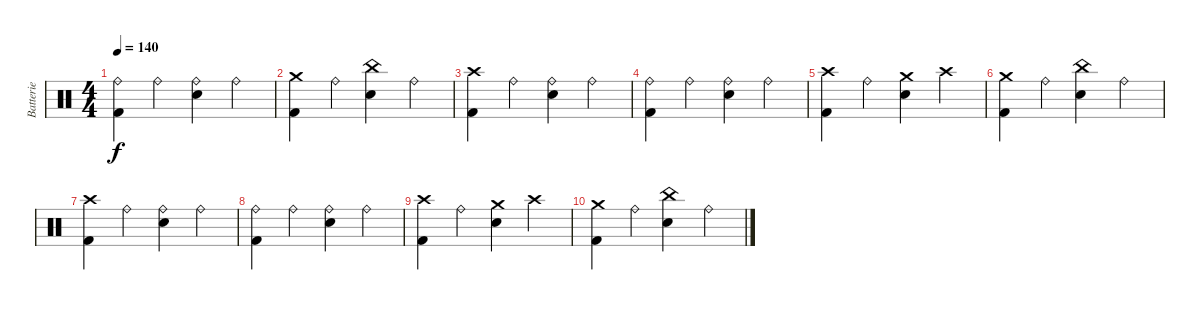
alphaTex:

\track ("Batterie" "Batterie") {instrument percussion}
\staff {score}
\articulation defaults
\ts (4 4)
\tempo 140
\clef neutral
\ks c
("Ride (bell)" "Kick (hit) 2").4{dy f} "Ride (bell)".4 ("Ride (bell)" "Electric Snare (hit)").4 "Ride (bell)".4 |
("Crash medium (hit)" "Kick (hit) 2").4 "Ride (bell)".4 ("China (hit)" "Electric Snare (hit)").4 "Ride (bell)".4 |
("Crash high (hit)" "Kick (hit) 2").4 "Ride (bell)".4 ("Ride (bell)" "Electric Snare (hit)").4 "Ride (bell)".4 |
("Ride (bell)" "Kick (hit) 2").4 "Ride (bell)".4 ("Ride (bell)" "Electric Snare (hit)").4 "Ride (bell)".4 |
("Crash high (hit)" "Kick (hit) 2").4 "Ride (bell)".4 ("Crash medium (hit)" "Electric Snare (hit)").4 "Crash high (hit)".4 |
("Crash medium (hit)" "Kick (hit) 2").4 "Ride (bell)".4 ("China (hit)" "Electric Snare (hit)").4 "Ride (bell)".4 |
("Crash high (hit)" "Kick (hit) 2").4 "Ride (bell)".4 ("Ride (bell)" "Electric Snare (hit)").4 "Ride (bell)".4 |
("Ride (bell)" "Kick (hit) 2").4 "Ride (bell)".4 ("Ride (bell)" "Electric Snare (hit)").4 "Ride (bell)".4 |
("Crash high (hit)" "Kick (hit) 2").4 "Ride (bell)".4 ("Crash medium (hit)" "Electric Snare (hit)").4 "Crash high (hit)".4 |
("Crash medium (hit)" "Kick (hit) 2").4 "Ride (bell)".4 ("China (hit)" "Electric Snare (hit)").4 "Ride (bell)".4
